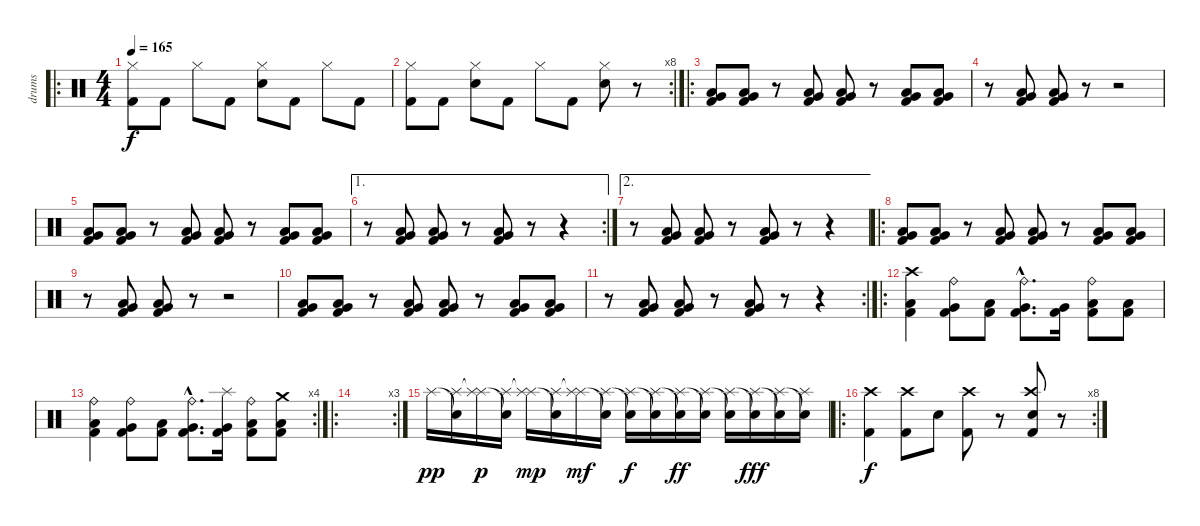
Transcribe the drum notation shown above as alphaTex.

\track ("drums" "drums") {instrument percussion}
\staff {score}
\articulation defaults
\ro
\ts (4 4)
\tempo 165
\clef neutral
\ks c
("Hi-Hat (closed)" "Kick (hit) 2").8{dy f} "Kick (hit) 2".8 "Hi-Hat (closed)".8 "Kick (hit) 2".8 ("Hi-Hat (closed)" "Hand Clap (hit)").8 "Kick (hit) 2".8 "Hi-Hat (closed)".8 "Kick (hit) 2".8 |
\rc 8
("Hi-Hat (closed)" "Kick (hit) 2").8 "Kick (hit) 2".8 ("Hi-Hat (closed)" "Hand Clap (hit)").8 "Kick (hit) 2".8 "Hi-Hat (closed)".8 "Kick (hit) 2".8 ("Hi-Hat (closed)" "Hand Clap (hit)").8 r.8 |
\ro
("Very Low Tom (hit)" "Low Floor Tom (hit)" "Kick (hit) 2").8 ("Very Low Tom (hit)" "Low Floor Tom (hit)" "Kick (hit) 2").8 r.8 ("Very Low Tom (hit)" "Low Floor Tom (hit)" "Kick (hit) 2").8 ("Very Low Tom (hit)" "Low Floor Tom (hit)" "Kick (hit) 2").8 r.8 ("Very Low Tom (hit)" "Low Floor Tom (hit)" "Kick (hit) 2").8 ("Very Low Tom (hit)" "Low Floor Tom (hit)" "Kick (hit) 2").8 |
r.8 ("Very Low Tom (hit)" "Low Floor Tom (hit)" "Kick (hit) 2").8 ("Very Low Tom (hit)" "Low Floor Tom (hit)" "Kick (hit) 2").8 r.8 r.2 |
("Very Low Tom (hit)" "Low Floor Tom (hit)" "Kick (hit) 2").8 ("Very Low Tom (hit)" "Low Floor Tom (hit)" "Kick (hit) 2").8 r.8 ("Very Low Tom (hit)" "Low Floor Tom (hit)" "Kick (hit) 2").8 ("Very Low Tom (hit)" "Low Floor Tom (hit)" "Kick (hit) 2").8 r.8 ("Very Low Tom (hit)" "Low Floor Tom (hit)" "Kick (hit) 2").8 ("Very Low Tom (hit)" "Low Floor Tom (hit)" "Kick (hit) 2").8 |
\ae 1
\rc 2
r.8 ("Very Low Tom (hit)" "Low Floor Tom (hit)" "Kick (hit) 2").8 ("Very Low Tom (hit)" "Low Floor Tom (hit)" "Kick (hit) 2").8 r.8 ("Very Low Tom (hit)" "Low Floor Tom (hit)" "Kick (hit) 2").8 r.8 r.4 |
\ae 2
r.8 ("Very Low Tom (hit)" "Low Floor Tom (hit)" "Kick (hit) 2").8 ("Very Low Tom (hit)" "Low Floor Tom (hit)" "Kick (hit) 2").8 r.8 ("Very Low Tom (hit)" "Low Floor Tom (hit)" "Kick (hit) 2").8 r.8 r.4 |
\ro
("Very Low Tom (hit)" "Low Floor Tom (hit)" "Kick (hit) 2").8 ("Very Low Tom (hit)" "Low Floor Tom (hit)" "Kick (hit) 2").8 r.8 ("Very Low Tom (hit)" "Low Floor Tom (hit)" "Kick (hit) 2").8 ("Very Low Tom (hit)" "Low Floor Tom (hit)" "Kick (hit) 2").8 r.8 ("Very Low Tom (hit)" "Low Floor Tom (hit)" "Kick (hit) 2").8 ("Very Low Tom (hit)" "Low Floor Tom (hit)" "Kick (hit) 2").8 |
r.8 ("Very Low Tom (hit)" "Low Floor Tom (hit)" "Kick (hit) 2").8 ("Very Low Tom (hit)" "Low Floor Tom (hit)" "Kick (hit) 2").8 r.8 r.2 |
("Very Low Tom (hit)" "Low Floor Tom (hit)" "Kick (hit) 2").8 ("Very Low Tom (hit)" "Low Floor Tom (hit)" "Kick (hit) 2").8 r.8 ("Very Low Tom (hit)" "Low Floor Tom (hit)" "Kick (hit) 2").8 ("Very Low Tom (hit)" "Low Floor Tom (hit)" "Kick (hit) 2").8 r.8 ("Very Low Tom (hit)" "Low Floor Tom (hit)" "Kick (hit) 2").8 ("Very Low Tom (hit)" "Low Floor Tom (hit)" "Kick (hit) 2").8 |
\rc 2
r.8 ("Very Low Tom (hit)" "Low Floor Tom (hit)" "Kick (hit) 2").8 ("Very Low Tom (hit)" "Low Floor Tom (hit)" "Kick (hit) 2").8 r.8 ("Very Low Tom (hit)" "Low Floor Tom (hit)" "Kick (hit) 2").8 r.8 r.4 |
\ro
("Crash high (hit)" "Low Floor Tom (hit)" "Kick (hit) 2").4 ("Ride (bell)" "Very Low Tom (hit)" "Kick (hit) 2").8 ("Low Floor Tom (hit)" "Kick (hit) 2").8 ("Ride (bell)"{hac} "Very Low Tom (hit)"{hac} "Kick (hit) 2"{hac}).8{d} ("Very Low Tom (hit)" "Kick (hit) 2").16 ("Ride (bell)" "Low Floor Tom (hit)" "Kick (hit) 2").8 ("Low Floor Tom (hit)" "Kick (hit) 2").8 |
\rc 4
("Ride (bell)" "Low Floor Tom (hit)" "Kick (hit) 2").4 ("Ride (bell)" "Very Low Tom (hit)" "Kick (hit) 2").8 ("Low Floor Tom (hit)" "Kick (hit) 2").8 ("Ride (bell)"{hac} "Very Low Tom (hit)"{hac} "Kick (hit) 2"{hac}).8{d} ("Splash (hit)" "Very Low Tom (hit)" "Kick (hit) 2").16 ("Ride (bell)" "Low Floor Tom (hit)" "Kick (hit) 2").8 ("Crash medium (hit)" "Low Floor Tom (hit)" "Kick (hit) 2").8 |
\ro
\rc 3
|
"Splash (hit)".16{dy pp} ("Snare (hit)"{t} "Splash (hit)").16 ("Splash (hit)" "Splash (hit)"{t}).16{dy p} ("Snare (hit)"{t} "Splash (hit)").16 ("Splash (hit)" "Splash (hit)"{t}).16{dy mp} ("Snare (hit)"{t} "Splash (hit)").16 ("Splash (hit)" "Splash (hit)"{t}).16{dy mf} ("Snare (hit)"{t} "Splash (hit)").16 ("Splash (hit)" "Snare (hit)"{t}).16{dy f} ("Snare (hit)"{t} "Splash (hit)").16 ("Splash (hit)" "Snare (hit)"{t}).16{dy ff} ("Snare (hit)"{t} "Splash (hit)").16 ("Splash (hit)" "Snare (hit)"{t}).16 ("Snare (hit)"{t} "Splash (hit)").16{dy fff} ("Splash (hit)" "Snare (hit)"{t}).16 ("Snare (hit)"{t} "Splash (hit)").16 |
\ro
\rc 8
("Crash high (hit)" "Kick (hit) 2").4{dy f} ("Crash high (hit)" "Kick (hit) 2").8 "Electric Snare (hit)".8 ("Crash high (hit)" "Kick (hit) 2").8 r.8 ("Crash high (hit)" "Electric Snare (hit)" "Kick (hit) 2").8 r.8
